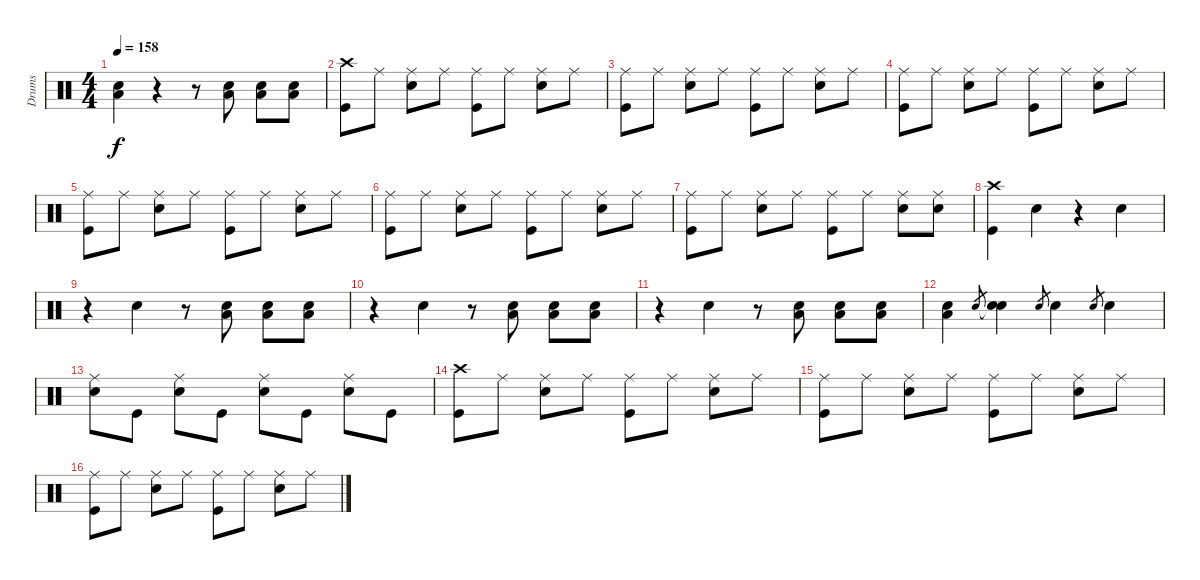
\track ("Drums" "Drums") {instrument percussion}
\staff {score}
\articulation defaults
\ts (4 4)
\tempo 158
\clef neutral
\ks c
("Snare (hit) 2" "Low Floor Tom (hit)").4{dy f} r.4 r.8 ("Snare (hit) 2" "Low Floor Tom (hit)").8 ("Snare (hit) 2" "Low Floor Tom (hit)").8 ("Snare (hit) 2" "Low Floor Tom (hit)").8 |
("Crash high (hit)" "Kick (hit)").8 "Ride (middle)".8 ("Ride (middle)" "Snare (hit) 2").8 "Ride (middle)".8 ("Ride (middle)" "Kick (hit)").8 "Ride (middle)".8 ("Ride (middle)" "Snare (hit) 2").8 "Ride (middle)".8 |
("Ride (middle)" "Kick (hit)").8 "Ride (middle)".8 ("Ride (middle)" "Snare (hit) 2").8 "Ride (middle)".8 ("Ride (middle)" "Kick (hit)").8 "Ride (middle)".8 ("Ride (middle)" "Snare (hit) 2").8 "Ride (middle)".8 |
("Ride (middle)" "Kick (hit)").8 "Ride (middle)".8 ("Ride (middle)" "Snare (hit) 2").8 "Ride (middle)".8 ("Ride (middle)" "Kick (hit)").8 "Ride (middle)".8 ("Ride (middle)" "Snare (hit) 2").8 "Ride (middle)".8 |
("Ride (middle)" "Kick (hit)").8 "Ride (middle)".8 ("Ride (middle)" "Snare (hit) 2").8 "Ride (middle)".8 ("Ride (middle)" "Kick (hit)").8 "Ride (middle)".8 ("Ride (middle)" "Snare (hit) 2").8 "Ride (middle)".8 |
("Ride (middle)" "Kick (hit)").8 "Ride (middle)".8 ("Ride (middle)" "Snare (hit) 2").8 "Ride (middle)".8 ("Ride (middle)" "Kick (hit)").8 "Ride (middle)".8 ("Ride (middle)" "Snare (hit) 2").8 "Ride (middle)".8 |
("Ride (middle)" "Kick (hit)").8 "Ride (middle)".8 ("Ride (middle)" "Snare (hit) 2").8 "Ride (middle)".8 ("Ride (middle)" "Kick (hit)").8 "Ride (middle)".8 ("Ride (middle)" "Snare (hit) 2").8 ("Ride (middle)" "Snare (hit) 2").8 |
("Crash high (hit)" "Kick (hit)").4 "Snare (hit) 2".4 r.4 "Snare (hit) 2".4 |
r.4 "Snare (hit) 2".4 r.8 ("Snare (hit) 2" "Low Floor Tom (hit)").8 ("Snare (hit) 2" "Low Floor Tom (hit)").8 ("Snare (hit) 2" "Low Floor Tom (hit)").8 |
r.4 "Snare (hit) 2".4 r.8 ("Snare (hit) 2" "Low Floor Tom (hit)").8 ("Snare (hit) 2" "Low Floor Tom (hit)").8 ("Snare (hit) 2" "Low Floor Tom (hit)").8 |
r.4 "Snare (hit) 2".4 r.8 ("Snare (hit) 2" "Low Floor Tom (hit)").8 ("Snare (hit) 2" "Low Floor Tom (hit)").8 ("Snare (hit) 2" "Low Floor Tom (hit)").8 |
("Snare (hit) 2" "Low Floor Tom (hit)").4 "Snare (hit) 2".8{gr} ("Snare (hit)"{t} "Snare (hit) 2").4 "Snare (hit) 2".8{gr} "Snare (hit) 2".4 "Snare (hit) 2".8{gr} "Snare (hit) 2".4 |
("Ride (middle)" "Snare (hit) 2").8 "Kick (hit)".8 ("Ride (middle)" "Snare (hit) 2").8 "Kick (hit)".8 ("Ride (middle)" "Snare (hit) 2").8 "Kick (hit)".8 ("Ride (middle)" "Snare (hit) 2").8 "Kick (hit)".8 |
("Crash high (hit)" "Kick (hit)").8 "Ride (middle)".8 ("Ride (middle)" "Snare (hit) 2").8 "Ride (middle)".8 ("Ride (middle)" "Kick (hit)").8 "Ride (middle)".8 ("Ride (middle)" "Snare (hit) 2").8 "Ride (middle)".8 |
("Ride (middle)" "Kick (hit)").8 "Ride (middle)".8 ("Ride (middle)" "Snare (hit) 2").8 "Ride (middle)".8 ("Ride (middle)" "Kick (hit)").8 "Ride (middle)".8 ("Ride (middle)" "Snare (hit) 2").8 "Ride (middle)".8 |
("Ride (middle)" "Kick (hit)").8 "Ride (middle)".8 ("Ride (middle)" "Snare (hit) 2").8 "Ride (middle)".8 ("Ride (middle)" "Kick (hit)").8 "Ride (middle)".8 ("Ride (middle)" "Snare (hit) 2").8 "Ride (middle)".8
